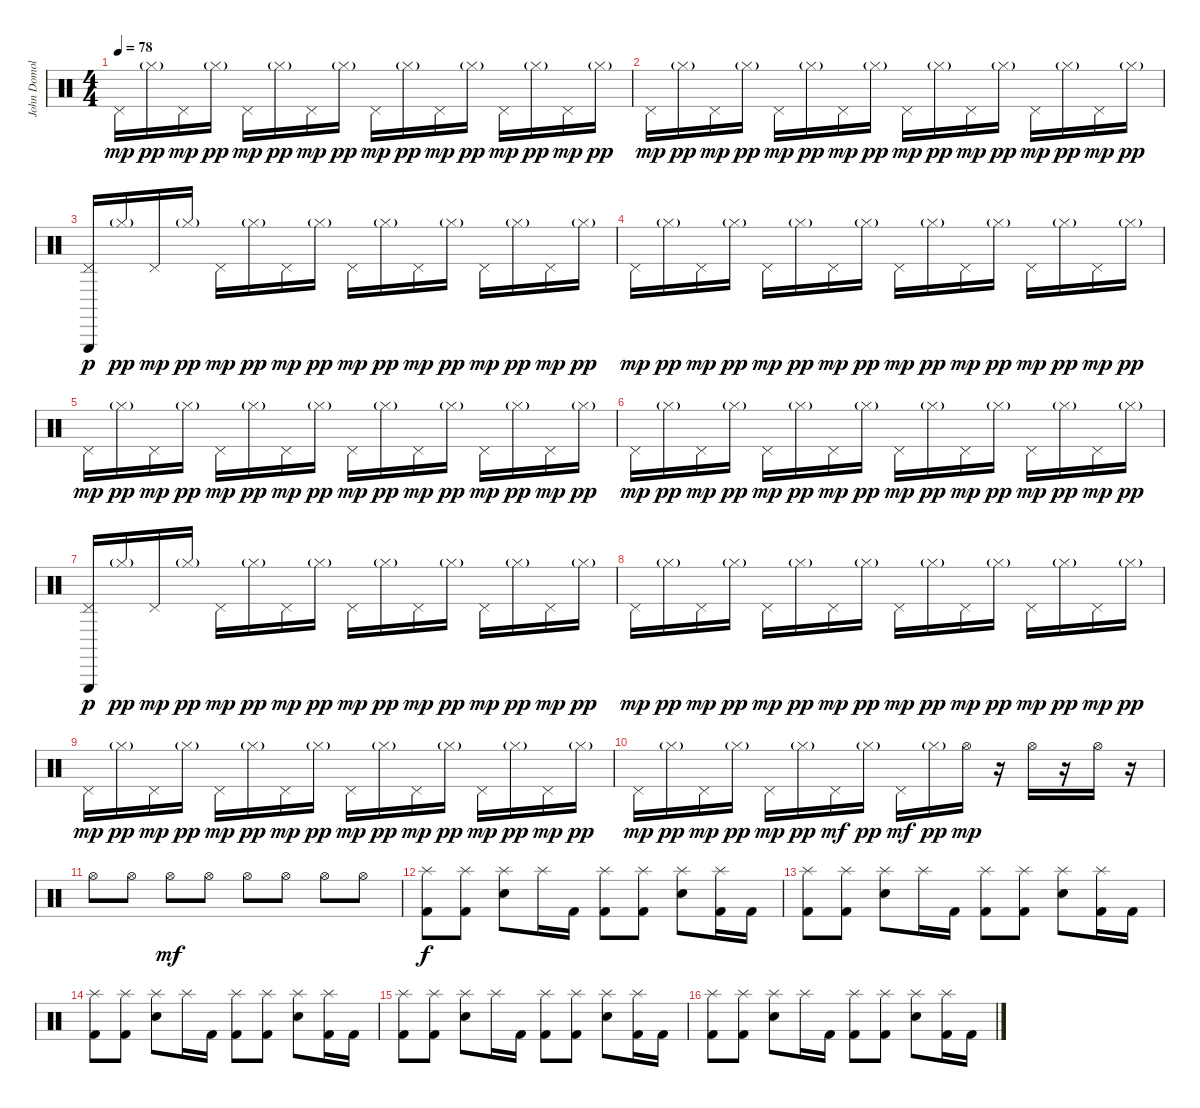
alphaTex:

\track ("John Domolyan (Drums)" "John Domol") {instrument percussion}
\staff {score}
\articulation defaults
\ts (4 4)
\tempo 78
\clef neutral
\ks c "Pedal Hi-Hat (hit)".16{dy mp} "Hi-Hat (closed)"{g}.16{dy pp} "Pedal Hi-Hat (hit)".16{dy mp} "Hi-Hat (closed)"{g}.16{dy pp} "Pedal Hi-Hat (hit)".16{dy mp} "Hi-Hat (closed)"{g}.16{dy pp} "Pedal Hi-Hat (hit)".16{dy mp} "Hi-Hat (closed)"{g}.16{dy pp} "Pedal Hi-Hat (hit)".16{dy mp} "Hi-Hat (closed)"{g}.16{dy pp} "Pedal Hi-Hat (hit)".16{dy mp} "Hi-Hat (closed)"{g}.16{dy pp} "Pedal Hi-Hat (hit)".16{dy mp} "Hi-Hat (closed)"{g}.16{dy pp} "Pedal Hi-Hat (hit)".16{dy mp} "Hi-Hat (closed)"{g}.16{dy pp}
|
"Pedal Hi-Hat (hit)".16{dy mp} "Hi-Hat (closed)"{g}.16{dy pp} "Pedal Hi-Hat (hit)".16{dy mp} "Hi-Hat (closed)"{g}.16{dy pp} "Pedal Hi-Hat (hit)".16{dy mp} "Hi-Hat (closed)"{g}.16{dy pp} "Pedal Hi-Hat (hit)".16{dy mp} "Hi-Hat (closed)"{g}.16{dy pp} "Pedal Hi-Hat (hit)".16{dy mp} "Hi-Hat (closed)"{g}.16{dy pp} "Pedal Hi-Hat (hit)".16{dy mp} "Hi-Hat (closed)"{g}.16{dy pp} "Pedal Hi-Hat (hit)".16{dy mp} "Hi-Hat (closed)"{g}.16{dy pp} "Pedal Hi-Hat (hit)".16{dy mp} "Hi-Hat (closed)"{g}.16{dy pp} |
("Pedal Hi-Hat (hit)" "Triangle (hit)").16{dy p} "Hi-Hat (closed)"{g}.16{dy pp} "Pedal Hi-Hat (hit)".16{dy mp} "Hi-Hat (closed)"{g}.16{dy pp} "Pedal Hi-Hat (hit)".16{dy mp} "Hi-Hat (closed)"{g}.16{dy pp} "Pedal Hi-Hat (hit)".16{dy mp} "Hi-Hat (closed)"{g}.16{dy pp} "Pedal Hi-Hat (hit)".16{dy mp} "Hi-Hat (closed)"{g}.16{dy pp} "Pedal Hi-Hat (hit)".16{dy mp} "Hi-Hat (closed)"{g}.16{dy pp} "Pedal Hi-Hat (hit)".16{dy mp} "Hi-Hat (closed)"{g}.16{dy pp} "Pedal Hi-Hat (hit)".16{dy mp} "Hi-Hat (closed)"{g}.16{dy pp} |
"Pedal Hi-Hat (hit)".16{dy mp} "Hi-Hat (closed)"{g}.16{dy pp} "Pedal Hi-Hat (hit)".16{dy mp} "Hi-Hat (closed)"{g}.16{dy pp} "Pedal Hi-Hat (hit)".16{dy mp} "Hi-Hat (closed)"{g}.16{dy pp} "Pedal Hi-Hat (hit)".16{dy mp} "Hi-Hat (closed)"{g}.16{dy pp} "Pedal Hi-Hat (hit)".16{dy mp} "Hi-Hat (closed)"{g}.16{dy pp} "Pedal Hi-Hat (hit)".16{dy mp} "Hi-Hat (closed)"{g}.16{dy pp} "Pedal Hi-Hat (hit)".16{dy mp} "Hi-Hat (closed)"{g}.16{dy pp} "Pedal Hi-Hat (hit)".16{dy mp} "Hi-Hat (closed)"{g}.16{dy pp} |
"Pedal Hi-Hat (hit)".16{dy mp} "Hi-Hat (closed)"{g}.16{dy pp} "Pedal Hi-Hat (hit)".16{dy mp} "Hi-Hat (closed)"{g}.16{dy pp} "Pedal Hi-Hat (hit)".16{dy mp} "Hi-Hat (closed)"{g}.16{dy pp} "Pedal Hi-Hat (hit)".16{dy mp} "Hi-Hat (closed)"{g}.16{dy pp} "Pedal Hi-Hat (hit)".16{dy mp} "Hi-Hat (closed)"{g}.16{dy pp} "Pedal Hi-Hat (hit)".16{dy mp} "Hi-Hat (closed)"{g}.16{dy pp} "Pedal Hi-Hat (hit)".16{dy mp} "Hi-Hat (closed)"{g}.16{dy pp} "Pedal Hi-Hat (hit)".16{dy mp} "Hi-Hat (closed)"{g}.16{dy pp} |
"Pedal Hi-Hat (hit)".16{dy mp} "Hi-Hat (closed)"{g}.16{dy pp} "Pedal Hi-Hat (hit)".16{dy mp} "Hi-Hat (closed)"{g}.16{dy pp} "Pedal Hi-Hat (hit)".16{dy mp} "Hi-Hat (closed)"{g}.16{dy pp} "Pedal Hi-Hat (hit)".16{dy mp} "Hi-Hat (closed)"{g}.16{dy pp} "Pedal Hi-Hat (hit)".16{dy mp} "Hi-Hat (closed)"{g}.16{dy pp} "Pedal Hi-Hat (hit)".16{dy mp} "Hi-Hat (closed)"{g}.16{dy pp} "Pedal Hi-Hat (hit)".16{dy mp} "Hi-Hat (closed)"{g}.16{dy pp} "Pedal Hi-Hat (hit)".16{dy mp} "Hi-Hat (closed)"{g}.16{dy pp} |
("Pedal Hi-Hat (hit)" "Triangle (hit)").16{dy p} "Hi-Hat (closed)"{g}.16{dy pp} "Pedal Hi-Hat (hit)".16{dy mp} "Hi-Hat (closed)"{g}.16{dy pp} "Pedal Hi-Hat (hit)".16{dy mp} "Hi-Hat (closed)"{g}.16{dy pp} "Pedal Hi-Hat (hit)".16{dy mp} "Hi-Hat (closed)"{g}.16{dy pp} "Pedal Hi-Hat (hit)".16{dy mp} "Hi-Hat (closed)"{g}.16{dy pp} "Pedal Hi-Hat (hit)".16{dy mp} "Hi-Hat (closed)"{g}.16{dy pp} "Pedal Hi-Hat (hit)".16{dy mp} "Hi-Hat (closed)"{g}.16{dy pp} "Pedal Hi-Hat (hit)".16{dy mp} "Hi-Hat (closed)"{g}.16{dy pp} |
"Pedal Hi-Hat (hit)".16{dy mp} "Hi-Hat (closed)"{g}.16{dy pp} "Pedal Hi-Hat (hit)".16{dy mp} "Hi-Hat (closed)"{g}.16{dy pp} "Pedal Hi-Hat (hit)".16{dy mp} "Hi-Hat (closed)"{g}.16{dy pp} "Pedal Hi-Hat (hit)".16{dy mp} "Hi-Hat (closed)"{g}.16{dy pp} "Pedal Hi-Hat (hit)".16{dy mp} "Hi-Hat (closed)"{g}.16{dy pp} "Pedal Hi-Hat (hit)".16{dy mp} "Hi-Hat (closed)"{g}.16{dy pp} "Pedal Hi-Hat (hit)".16{dy mp} "Hi-Hat (closed)"{g}.16{dy pp} "Pedal Hi-Hat (hit)".16{dy mp} "Hi-Hat (closed)"{g}.16{dy pp} |
"Pedal Hi-Hat (hit)".16{dy mp} "Hi-Hat (closed)"{g}.16{dy pp} "Pedal Hi-Hat (hit)".16{dy mp} "Hi-Hat (closed)"{g}.16{dy pp} "Pedal Hi-Hat (hit)".16{dy mp} "Hi-Hat (closed)"{g}.16{dy pp} "Pedal Hi-Hat (hit)".16{dy mp} "Hi-Hat (closed)"{g}.16{dy pp} "Pedal Hi-Hat (hit)".16{dy mp} "Hi-Hat (closed)"{g}.16{dy pp} "Pedal Hi-Hat (hit)".16{dy mp} "Hi-Hat (closed)"{g}.16{dy pp} "Pedal Hi-Hat (hit)".16{dy mp} "Hi-Hat (closed)"{g}.16{dy pp} "Pedal Hi-Hat (hit)".16{dy mp} "Hi-Hat (closed)"{g}.16{dy pp} |
"Pedal Hi-Hat (hit)".16{dy mp} "Hi-Hat (closed)"{g}.16{dy pp} "Pedal Hi-Hat (hit)".16{dy mp} "Hi-Hat (closed)"{g}.16{dy pp} "Pedal Hi-Hat (hit)".16{dy mp} "Hi-Hat (closed)"{g}.16{dy pp} "Pedal Hi-Hat (hit)".16{dy mf} "Hi-Hat (closed)"{g}.16{dy pp} "Pedal Hi-Hat (hit)".16{dy mf} "Hi-Hat (closed)"{g}.16{dy pp} "Hi-Hat (open)".16{dy mp} r.16 "Hi-Hat (open)".16 r.16 "Hi-Hat (open)".16 r.16 |
"Hi-Hat (open)".8 "Hi-Hat (open)".8 "Hi-Hat (open)".8{dy mf} "Hi-Hat (open)".8 "Hi-Hat (open)".8 "Hi-Hat (open)".8 "Hi-Hat (open)".8 "Hi-Hat (open)".8 |
("Splash (hit)" "Kick (hit) 2").8{dy f} ("Splash (hit)" "Kick (hit) 2").8 ("Splash (hit)" "Electric Snare (hit)").8 "Splash (hit)".16 "Kick (hit) 2".16 ("Splash (hit)" "Kick (hit) 2").8 ("Splash (hit)" "Kick (hit) 2").8 ("Splash (hit)" "Electric Snare (hit)").8 ("Splash (hit)" "Kick (hit) 2").16 "Kick (hit) 2".16 |
("Splash (hit)" "Kick (hit) 2").8 ("Splash (hit)" "Kick (hit) 2").8 ("Splash (hit)" "Electric Snare (hit)").8 "Splash (hit)".16 "Kick (hit) 2".16 ("Splash (hit)" "Kick (hit) 2").8 ("Splash (hit)" "Kick (hit) 2").8 ("Splash (hit)" "Electric Snare (hit)").8 ("Splash (hit)" "Kick (hit) 2").16 "Kick (hit) 2".16 |
("Splash (hit)" "Kick (hit) 2").8 ("Splash (hit)" "Kick (hit) 2").8 ("Splash (hit)" "Electric Snare (hit)").8 "Splash (hit)".16 "Kick (hit) 2".16 ("Splash (hit)" "Kick (hit) 2").8 ("Splash (hit)" "Kick (hit) 2").8 ("Splash (hit)" "Electric Snare (hit)").8 ("Splash (hit)" "Kick (hit) 2").16 "Kick (hit) 2".16 |
("Splash (hit)" "Kick (hit) 2").8 ("Splash (hit)" "Kick (hit) 2").8 ("Splash (hit)" "Electric Snare (hit)").8 "Splash (hit)".16 "Kick (hit) 2".16 ("Splash (hit)" "Kick (hit) 2").8 ("Splash (hit)" "Kick (hit) 2").8 ("Splash (hit)" "Electric Snare (hit)").8 ("Splash (hit)" "Kick (hit) 2").16 "Kick (hit) 2".16 |
("Splash (hit)" "Kick (hit) 2").8 ("Splash (hit)" "Kick (hit) 2").8 ("Splash (hit)" "Electric Snare (hit)").8 "Splash (hit)".16 "Kick (hit) 2".16 ("Splash (hit)" "Kick (hit) 2").8 ("Splash (hit)" "Kick (hit) 2").8 ("Splash (hit)" "Electric Snare (hit)").8 ("Splash (hit)" "Kick (hit) 2").16 "Kick (hit) 2".16
